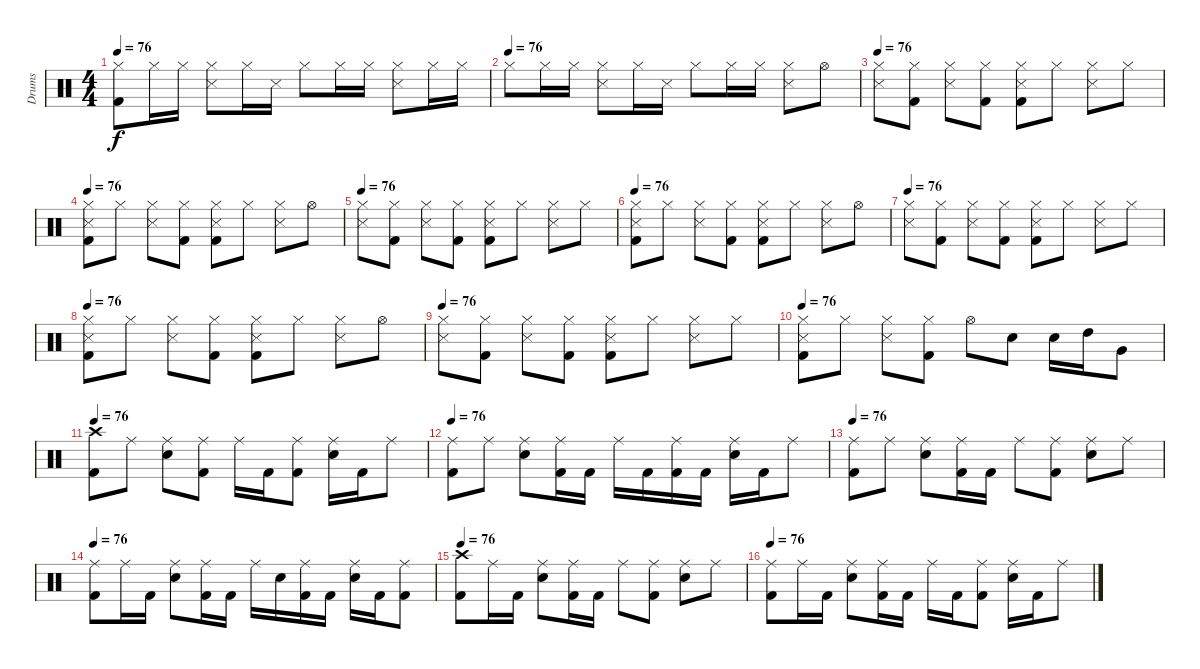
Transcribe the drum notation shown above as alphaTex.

\track ("Drums" "Drums") {instrument percussion}
\staff {score}
\articulation defaults
\ts (4 4)
\tempo 76
\clef neutral
\ks c
("Hi-Hat (closed)" "Kick (hit) 2").8{dy f} "Hi-Hat (closed)".16 "Hi-Hat (closed)".16 ("Hi-Hat (closed)" "Snare (side stick) 3").8 "Hi-Hat (closed)".16 "Snare (side stick) 3".16 "Hi-Hat (closed)".8 "Hi-Hat (closed)".16 "Hi-Hat (closed)".16 ("Hi-Hat (closed)" "Snare (side stick) 3").8 "Hi-Hat (closed)".16 "Hi-Hat (closed)".16 |
\tempo (76)
"Hi-Hat (closed)".8 "Hi-Hat (closed)".16 "Hi-Hat (closed)".16 ("Hi-Hat (closed)" "Snare (side stick) 3").8 "Hi-Hat (closed)".16 "Snare (side stick) 3".16 "Hi-Hat (closed)".8 "Hi-Hat (closed)".16 "Hi-Hat (closed)".16 ("Hi-Hat (closed)" "Snare (side stick) 3").8 "Hi-Hat (open)".8 |
\tempo 76
("Hi-Hat (closed)" "Snare (side stick) 3").8 ("Hi-Hat (closed)" "Kick (hit) 2").8 ("Hi-Hat (closed)" "Snare (side stick) 3").8 ("Hi-Hat (closed)" "Kick (hit) 2").8 ("Hi-Hat (closed)" "Snare (side stick) 3" "Kick (hit) 2").8 "Hi-Hat (closed)".8 ("Hi-Hat (closed)" "Snare (side stick) 3").8 "Hi-Hat (closed)".8 |
\tempo 76
("Hi-Hat (closed)" "Snare (side stick) 3" "Kick (hit) 2").8 "Hi-Hat (closed)".8 ("Hi-Hat (closed)" "Snare (side stick) 3").8 ("Hi-Hat (closed)" "Kick (hit) 2").8 ("Hi-Hat (closed)" "Snare (side stick) 3" "Kick (hit) 2").8 "Hi-Hat (closed)".8 ("Hi-Hat (closed)" "Snare (side stick) 3").8 "Hi-Hat (open)".8 |
\tempo 76
("Hi-Hat (closed)" "Snare (side stick) 3").8 ("Hi-Hat (closed)" "Kick (hit) 2").8 ("Hi-Hat (closed)" "Snare (side stick) 3").8 ("Hi-Hat (closed)" "Kick (hit) 2").8 ("Hi-Hat (closed)" "Snare (side stick) 3" "Kick (hit) 2").8 "Hi-Hat (closed)".8 ("Hi-Hat (closed)" "Snare (side stick) 3").8 "Hi-Hat (closed)".8 |
\tempo 76
("Hi-Hat (closed)" "Snare (side stick) 3" "Kick (hit) 2").8 "Hi-Hat (closed)".8 ("Hi-Hat (closed)" "Snare (side stick) 3").8 ("Hi-Hat (closed)" "Kick (hit) 2").8 ("Hi-Hat (closed)" "Snare (side stick) 3" "Kick (hit) 2").8 "Hi-Hat (closed)".8 ("Hi-Hat (closed)" "Snare (side stick) 3").8 "Hi-Hat (open)".8 |
\tempo 76
("Hi-Hat (closed)" "Snare (side stick) 3").8 ("Hi-Hat (closed)" "Kick (hit) 2").8 ("Hi-Hat (closed)" "Snare (side stick) 3").8 ("Hi-Hat (closed)" "Kick (hit) 2").8 ("Hi-Hat (closed)" "Snare (side stick) 3" "Kick (hit) 2").8 "Hi-Hat (closed)".8 ("Hi-Hat (closed)" "Snare (side stick) 3").8 "Hi-Hat (closed)".8 |
\tempo 76
("Hi-Hat (closed)" "Snare (side stick) 3" "Kick (hit) 2").8 "Hi-Hat (closed)".8 ("Hi-Hat (closed)" "Snare (side stick) 3").8 ("Hi-Hat (closed)" "Kick (hit) 2").8 ("Hi-Hat (closed)" "Snare (side stick) 3" "Kick (hit) 2").8 "Hi-Hat (closed)".8 ("Hi-Hat (closed)" "Snare (side stick) 3").8 "Hi-Hat (open)".8 |
\tempo 76
("Hi-Hat (closed)" "Snare (side stick) 3").8 ("Hi-Hat (closed)" "Kick (hit) 2").8 ("Hi-Hat (closed)" "Snare (side stick) 3").8 ("Hi-Hat (closed)" "Kick (hit) 2").8 ("Hi-Hat (closed)" "Snare (side stick) 3" "Kick (hit) 2").8 "Hi-Hat (closed)".8 ("Hi-Hat (closed)" "Snare (side stick) 3").8 "Hi-Hat (closed)".8 |
\tempo 76
("Hi-Hat (closed)" "Snare (side stick) 3" "Kick (hit) 2").8 "Hi-Hat (closed)".8 ("Hi-Hat (closed)" "Snare (side stick) 3").8 ("Hi-Hat (closed)" "Kick (hit) 2").8 "Hi-Hat (open)".8 "Snare (hit) 2".8 "Snare (hit) 2".16 "High Tom (hit)".16 "Very Low Tom (hit)".8 |
\tempo 76
("Crash high (hit)" "Kick (hit) 2").8 "Ride (middle)".8 ("Ride (middle)" "Snare (hit) 2").8 ("Ride (middle)" "Kick (hit) 2").8 "Ride (middle)".16 "Kick (hit) 2".16 ("Ride (middle)" "Kick (hit) 2").8 ("Ride (middle)" "Snare (hit) 2").16 "Kick (hit) 2".16 "Ride (middle)".8 |
\tempo 76
("Ride (middle)" "Kick (hit) 2").8 "Ride (middle)".8 ("Ride (middle)" "Snare (hit) 2").8 ("Ride (middle)" "Kick (hit) 2").16 "Kick (hit) 2".16 "Ride (middle)".16 "Kick (hit) 2".16 ("Ride (middle)" "Kick (hit) 2").16 "Kick (hit) 2".16 ("Ride (middle)" "Snare (hit) 2").16 "Kick (hit) 2".16 "Ride (middle)".8 |
\tempo 76
("Ride (middle)" "Kick (hit) 2").8 "Ride (middle)".8 ("Ride (middle)" "Snare (hit) 2").8 ("Ride (middle)" "Kick (hit) 2").16 "Kick (hit) 2".16 "Ride (middle)".8 ("Ride (middle)" "Kick (hit) 2").8 ("Ride (middle)" "Snare (hit) 2").8 "Ride (middle)".8 |
\tempo 76
("Ride (middle)" "Kick (hit) 2").8 "Ride (middle)".16 "Kick (hit) 2".16 ("Ride (middle)" "Snare (hit) 2").8 ("Ride (middle)" "Kick (hit) 2").16 "Kick (hit) 2".16 "Ride (middle)".16 "Snare (hit) 2".16 ("Ride (middle)" "Kick (hit) 2").16 "Kick (hit) 2".16 ("Ride (middle)" "Snare (hit) 2").16 "Kick (hit) 2".16 ("Ride (middle)" "Kick (hit) 2").8 |
\tempo 76
("Crash high (hit)" "Kick (hit) 2").8 "Ride (middle)".16 "Kick (hit) 2".16 ("Ride (middle)" "Snare (hit) 2").8 ("Ride (middle)" "Kick (hit) 2").16 "Kick (hit) 2".16 "Ride (middle)".8 ("Ride (middle)" "Kick (hit) 2").8 ("Ride (middle)" "Snare (hit) 2").8 "Ride (middle)".8 |
\tempo 76
("Ride (middle)" "Kick (hit) 2").8 "Ride (middle)".16 "Kick (hit) 2".16 ("Ride (middle)" "Snare (hit) 2").8 ("Ride (middle)" "Kick (hit) 2").16 "Kick (hit) 2".16 "Ride (middle)".16 "Kick (hit) 2".16 ("Ride (middle)" "Kick (hit) 2").8 ("Ride (middle)" "Snare (hit) 2").16 "Kick (hit) 2".16 "Ride (middle)".8
